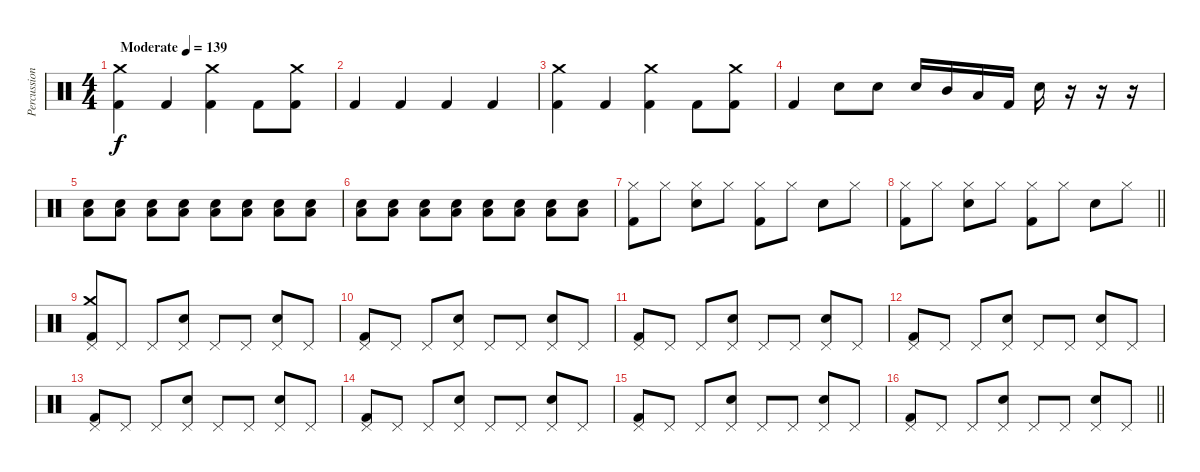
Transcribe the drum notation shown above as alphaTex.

\track ("Percussion" "Percussion") {instrument percussion}
\staff {score}
\articulation defaults
\ts (4 4)
\tempo (139 "Moderate")
\clef neutral
\ks c
("Kick (hit) 2" "Crash medium (hit)").4{dy f} "Kick (hit) 2".4 ("Kick (hit) 2" "Crash medium (hit)").4 "Kick (hit) 2".8 ("Kick (hit) 2" "Crash medium (hit)").8 |
"Kick (hit) 2".4 "Kick (hit) 2".4 "Kick (hit) 2".4 "Kick (hit) 2".4 |
("Kick (hit) 2" "Crash medium (hit)").4 "Kick (hit) 2".4 ("Kick (hit) 2" "Crash medium (hit)").4 "Kick (hit) 2".8 ("Kick (hit) 2" "Crash medium (hit)").8 |
"Kick (hit) 2".4 "Snare (hit) 2".8 "Snare (hit) 2".8 "Snare (hit) 2".16 "Mid Tom (hit)".16 "Low Tom (hit)".16 "Kick (hit) 2".16 "Snare (hit) 2".16 r.16 r.16 r.16 |
("Snare (hit) 2" "Low Tom (hit)").8{volume 7} ("Snare (hit) 2" "Low Tom (hit)").8 ("Snare (hit) 2" "Low Tom (hit)").8 ("Snare (hit) 2" "Low Tom (hit)").8 ("Snare (hit) 2" "Low Tom (hit)").8{volume 13} ("Snare (hit) 2" "Low Tom (hit)").8 ("Snare (hit) 2" "Low Tom (hit)").8 ("Snare (hit) 2" "Low Tom (hit)").8 |
("Snare (hit) 2" "Low Tom (hit)").8 ("Snare (hit) 2" "Low Tom (hit)").8 ("Snare (hit) 2" "Low Tom (hit)").8 ("Snare (hit) 2" "Low Tom (hit)").8 ("Snare (hit) 2" "Low Tom (hit)").8 ("Snare (hit) 2" "Low Tom (hit)").8 ("Snare (hit) 2" "Low Tom (hit)").8 ("Snare (hit) 2" "Low Tom (hit)").8 |
("Kick (hit) 2" "Hi-Hat (closed)").8 "Hi-Hat (closed)".8 ("Snare (hit) 2" "Hi-Hat (closed)").8 "Hi-Hat (closed)".8 ("Kick (hit) 2" "Hi-Hat (closed)").8 "Hi-Hat (closed)".8 "Snare (hit) 2".8 "Hi-Hat (closed)".8 |
\barLineRight lightlight
("Kick (hit) 2" "Hi-Hat (closed)").8 "Hi-Hat (closed)".8 ("Snare (hit) 2" "Hi-Hat (closed)").8 "Hi-Hat (closed)".8 ("Kick (hit) 2" "Hi-Hat (closed)").8 "Hi-Hat (closed)".8 "Snare (hit) 2".8 "Hi-Hat (closed)".8 |
("Crash medium (hit)" "Pedal Hi-Hat (hit)" "Kick (hit) 2").8 "Pedal Hi-Hat (hit)".8 "Pedal Hi-Hat (hit)".8 ("Snare (hit) 2" "Pedal Hi-Hat (hit)").8 "Pedal Hi-Hat (hit)".8 "Pedal Hi-Hat (hit)".8 ("Snare (hit) 2" "Pedal Hi-Hat (hit)").8 "Pedal Hi-Hat (hit)".8 |
("Pedal Hi-Hat (hit)" "Kick (hit) 2").8 "Pedal Hi-Hat (hit)".8 "Pedal Hi-Hat (hit)".8 ("Snare (hit) 2" "Pedal Hi-Hat (hit)").8 "Pedal Hi-Hat (hit)".8 "Pedal Hi-Hat (hit)".8 ("Snare (hit) 2" "Pedal Hi-Hat (hit)").8 "Pedal Hi-Hat (hit)".8 |
("Pedal Hi-Hat (hit)" "Kick (hit) 2").8 "Pedal Hi-Hat (hit)".8 "Pedal Hi-Hat (hit)".8 ("Snare (hit) 2" "Pedal Hi-Hat (hit)").8 "Pedal Hi-Hat (hit)".8 "Pedal Hi-Hat (hit)".8 ("Snare (hit) 2" "Pedal Hi-Hat (hit)").8 "Pedal Hi-Hat (hit)".8 |
("Pedal Hi-Hat (hit)" "Kick (hit) 2").8 "Pedal Hi-Hat (hit)".8 "Pedal Hi-Hat (hit)".8 ("Snare (hit) 2" "Pedal Hi-Hat (hit)").8 "Pedal Hi-Hat (hit)".8 "Pedal Hi-Hat (hit)".8 ("Snare (hit) 2" "Pedal Hi-Hat (hit)").8 "Pedal Hi-Hat (hit)".8 |
("Pedal Hi-Hat (hit)" "Kick (hit) 2").8 "Pedal Hi-Hat (hit)".8 "Pedal Hi-Hat (hit)".8 ("Snare (hit) 2" "Pedal Hi-Hat (hit)").8 "Pedal Hi-Hat (hit)".8 "Pedal Hi-Hat (hit)".8 ("Snare (hit) 2" "Pedal Hi-Hat (hit)").8 "Pedal Hi-Hat (hit)".8 |
("Pedal Hi-Hat (hit)" "Kick (hit) 2").8 "Pedal Hi-Hat (hit)".8 "Pedal Hi-Hat (hit)".8 ("Snare (hit) 2" "Pedal Hi-Hat (hit)").8 "Pedal Hi-Hat (hit)".8 "Pedal Hi-Hat (hit)".8 ("Snare (hit) 2" "Pedal Hi-Hat (hit)").8 "Pedal Hi-Hat (hit)".8 |
("Pedal Hi-Hat (hit)" "Kick (hit) 2").8 "Pedal Hi-Hat (hit)".8 "Pedal Hi-Hat (hit)".8 ("Snare (hit) 2" "Pedal Hi-Hat (hit)").8 "Pedal Hi-Hat (hit)".8 "Pedal Hi-Hat (hit)".8 ("Snare (hit) 2" "Pedal Hi-Hat (hit)").8 "Pedal Hi-Hat (hit)".8 |
\barLineRight lightlight
("Pedal Hi-Hat (hit)" "Kick (hit) 2").8 "Pedal Hi-Hat (hit)".8 "Pedal Hi-Hat (hit)".8 ("Snare (hit) 2" "Pedal Hi-Hat (hit)").8 "Pedal Hi-Hat (hit)".8 "Pedal Hi-Hat (hit)".8 ("Snare (hit) 2" "Pedal Hi-Hat (hit)").8 "Pedal Hi-Hat (hit)".8
